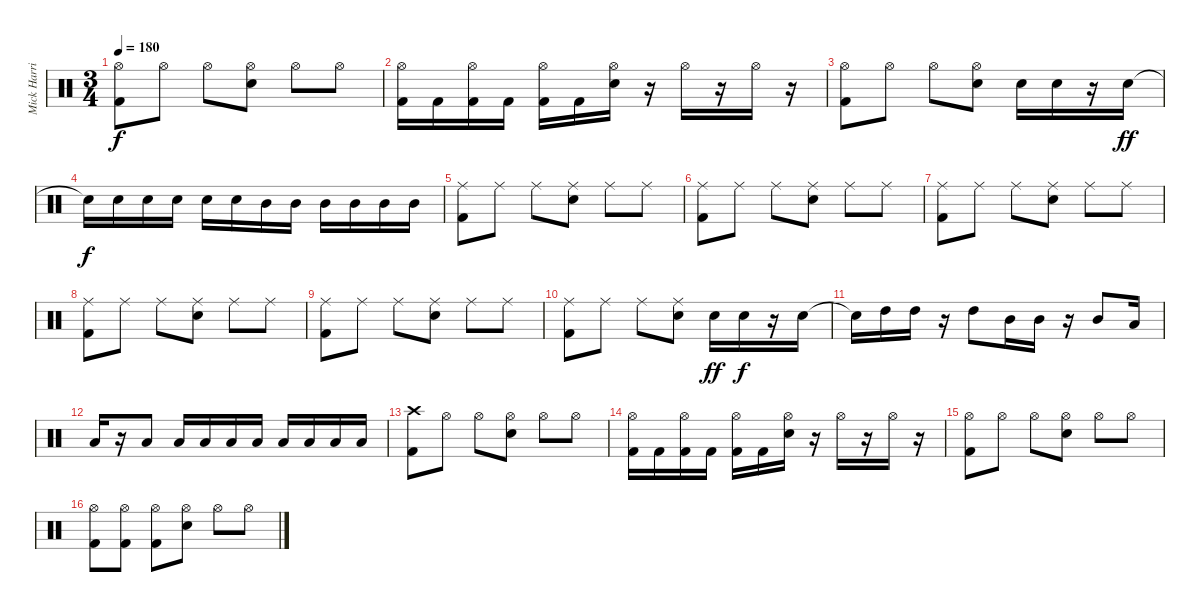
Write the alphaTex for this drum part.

\track ("Mick Harris (Drums)" "Mick Harri") {instrument percussion}
\staff {score}
\articulation defaults
\ts (3 4)
\tempo 180
\clef neutral
\ks c
("Kick (hit) 2" "Hi-Hat (open)").8{dy f} "Hi-Hat (open)".8 "Hi-Hat (open)".8 ("Electric Snare (hit)" "Hi-Hat (open)").8 "Hi-Hat (open)".8 "Hi-Hat (open)".8 |
("Kick (hit) 2" "Hi-Hat (open)").16 "Kick (hit) 2".16 ("Kick (hit) 2" "Hi-Hat (open)").16 "Kick (hit) 2".16 ("Kick (hit) 2" "Hi-Hat (open)").16 "Kick (hit) 2".16 ("Electric Snare (hit)" "Hi-Hat (open)").16 r.16 "Hi-Hat (open)".16 r.16 "Hi-Hat (open)".16 r.16 |
("Kick (hit) 2" "Hi-Hat (open)").8 "Hi-Hat (open)".8 "Hi-Hat (open)".8 ("Electric Snare (hit)" "Hi-Hat (open)").8 "Electric Snare (hit)".16 "Electric Snare (hit)".16 r.16 "Electric Snare (hit)".16{dy ff} |
"Electric Snare (hit)"{t}.16{dy f} "Electric Snare (hit)".16 "Electric Snare (hit)".16 "Electric Snare (hit)".16 "Electric Snare (hit)".16 "Electric Snare (hit)".16 "Mid Tom (hit)".16 "Mid Tom (hit)".16 "Mid Tom (hit)".16 "Mid Tom (hit)".16 "Mid Tom (hit)".16 "Mid Tom (hit)".16 |
("Kick (hit) 2" "Ride (middle)").8 "Ride (middle)".8 "Ride (middle)".8 ("Electric Snare (hit)" "Ride (middle)").8 "Ride (middle)".8 "Ride (middle)".8 |
("Kick (hit) 2" "Ride (middle)").8 "Ride (middle)".8 "Ride (middle)".8 ("Electric Snare (hit)" "Ride (middle)").8 "Ride (middle)".8 "Ride (middle)".8 |
("Kick (hit) 2" "Ride (middle)").8 "Ride (middle)".8 "Ride (middle)".8 ("Electric Snare (hit)" "Ride (middle)").8 "Ride (middle)".8 "Ride (middle)".8 |
("Kick (hit) 2" "Ride (middle)").8 "Ride (middle)".8 "Ride (middle)".8 ("Electric Snare (hit)" "Ride (middle)").8 "Ride (middle)".8 "Ride (middle)".8 |
("Kick (hit) 2" "Ride (middle)").8 "Ride (middle)".8 "Ride (middle)".8 ("Electric Snare (hit)" "Ride (middle)").8 "Ride (middle)".8 "Ride (middle)".8 |
("Kick (hit) 2" "Ride (middle)").8 "Ride (middle)".8 "Ride (middle)".8 ("Electric Snare (hit)" "Ride (middle)").8 "Electric Snare (hit)".16{dy ff} "Electric Snare (hit)".16{dy f} r.16 "Electric Snare (hit)".16 |
"Electric Snare (hit)"{t}.16 "High Tom (hit)".16 "High Tom (hit)".16 r.16 "High Tom (hit)".8 "Mid Tom (hit)".16 "Mid Tom (hit)".16 r.16 "Mid Tom (hit)".8 "Low Tom (hit)".16 |
"Low Tom (hit)".16 r.16 "Low Tom (hit)".8 "Low Tom (hit)".16 "Low Tom (hit)".16 "Low Tom (hit)".16 "Low Tom (hit)".16 "Low Tom (hit)".16 "Low Tom (hit)".16 "Low Tom (hit)".16 "Low Tom (hit)".16 |
("Kick (hit) 2" "Crash high (hit)").8 "Hi-Hat (open)".8 "Hi-Hat (open)".8 ("Electric Snare (hit)" "Hi-Hat (open)").8 "Hi-Hat (open)".8 "Hi-Hat (open)".8 |
("Kick (hit) 2" "Hi-Hat (open)").16 "Kick (hit) 2".16 ("Kick (hit) 2" "Hi-Hat (open)").16 "Kick (hit) 2".16 ("Kick (hit) 2" "Hi-Hat (open)").16 "Kick (hit) 2".16 ("Electric Snare (hit)" "Hi-Hat (open)").16 r.16 "Hi-Hat (open)".16 r.16 "Hi-Hat (open)".16 r.16 |
("Kick (hit) 2" "Hi-Hat (open)").8 "Hi-Hat (open)".8 "Hi-Hat (open)".8 ("Electric Snare (hit)" "Hi-Hat (open)").8 "Hi-Hat (open)".8 "Hi-Hat (open)".8 |
("Kick (hit) 2" "Hi-Hat (open)").8 ("Kick (hit) 2" "Hi-Hat (open)").8 ("Kick (hit) 2" "Hi-Hat (open)").8 ("Electric Snare (hit)" "Hi-Hat (open)").8 "Hi-Hat (open)".8 "Hi-Hat (open)".8
